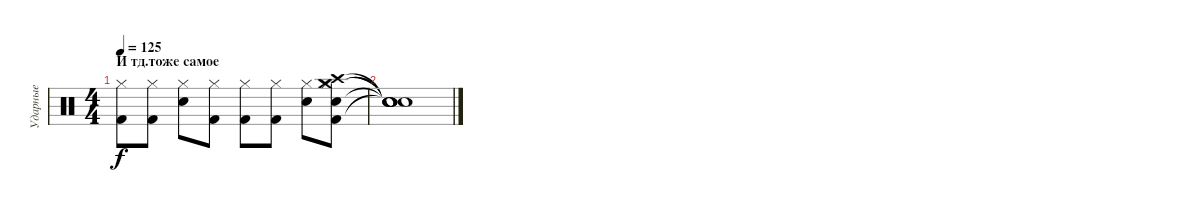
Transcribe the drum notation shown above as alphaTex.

\track ("Ударные" "Ударные") {instrument percussion}
\staff {score}
\articulation defaults
\ts (4 4)
\section ("" "И тд.тоже самое")
\tempo 125
\clef neutral
\ks c
("Hi-Hat (closed)" "Kick (hit) 2").8{dy f} ("Hi-Hat (closed)" "Kick (hit) 2").8 ("Hi-Hat (closed)" "Electric Snare (hit)").8 ("Hi-Hat (closed)" "Kick (hit) 2").8 ("Hi-Hat (closed)" "Kick (hit) 2").8 ("Hi-Hat (closed)" "Kick (hit) 2").8 ("Hi-Hat (closed)" "Electric Snare (hit)").8 ("Hi-Hat (closed)" "Kick (hit) 2" "Crash medium (hit)" "Crash high (hit)" "Electric Snare (hit)").8 |
("Snare (hit)"{t} "Snare (hit)"{t} "Snare (hit)"{t} "Snare (hit)"{t} "Snare (hit)"{t}).1
